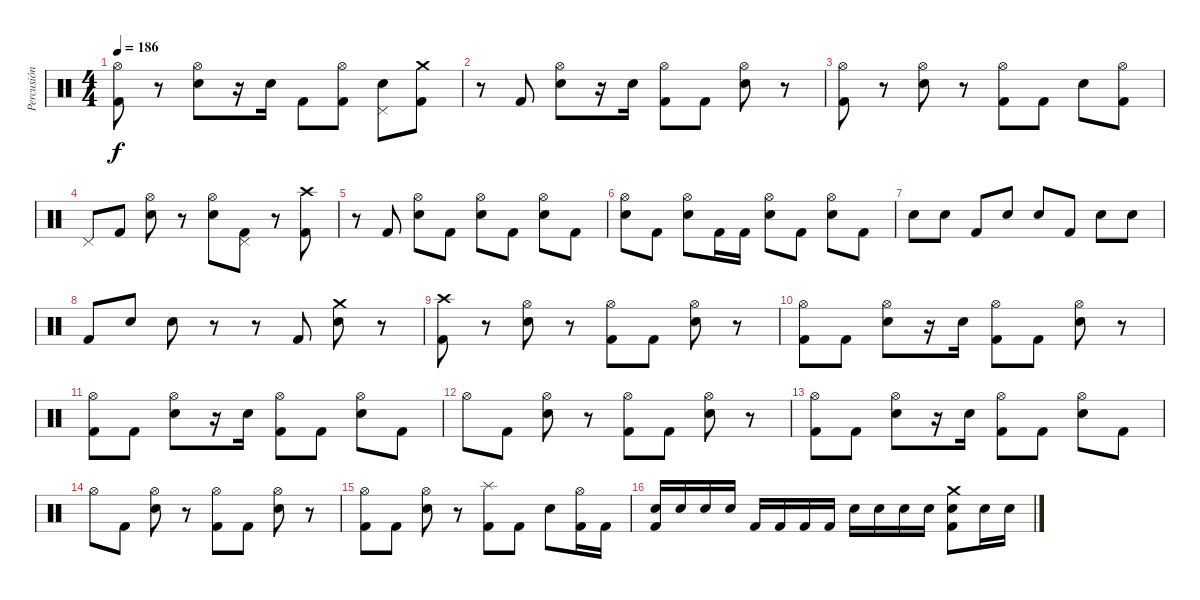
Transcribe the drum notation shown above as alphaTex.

\track ("Percusión" "Percusión") {instrument percussion}
\staff {score}
\articulation defaults
\ts (4 4)
\tempo 186
\clef neutral
\ks c
("Kick (hit) 2" "Hi-Hat (open)").8{dy f} r.8 ("Snare (hit) 2" "Hi-Hat (open)").8 r.16 "Snare (hit) 2".16 "Kick (hit) 2".8 ("Kick (hit) 2" "Hi-Hat (open)").8 ("Snare (hit) 2" "Pedal Hi-Hat (hit)").8 ("Kick (hit) 2" "Crash medium (hit)").8 |
r.8 "Kick (hit) 2".8 ("Snare (hit) 2" "Hi-Hat (open)").8 r.16 "Snare (hit) 2".16 ("Kick (hit) 2" "Hi-Hat (open)").8 "Kick (hit) 2".8 ("Snare (hit) 2" "Hi-Hat (open)").8 r.8 |
("Kick (hit) 2" "Hi-Hat (open)").8 r.8 ("Snare (hit) 2" "Hi-Hat (open)").8 r.8 ("Kick (hit) 2" "Hi-Hat (open)").8 "Kick (hit) 2".8 "Snare (hit) 2".8 ("Kick (hit) 2" "Hi-Hat (open)").8 |
"Pedal Hi-Hat (hit)".8 "Kick (hit) 2".8 ("Snare (hit) 2" "Hi-Hat (open)").8 r.8 ("Snare (hit) 2" "Hi-Hat (open)").8 ("Kick (hit) 2" "Pedal Hi-Hat (hit)").8 r.8 ("Kick (hit) 2" "Crash high (hit)").8 |
r.8 "Kick (hit) 2".8 ("Snare (hit) 2" "Hi-Hat (open)").8 "Kick (hit) 2".8 ("Snare (hit) 2" "Hi-Hat (open)").8 "Kick (hit) 2".8 ("Snare (hit) 2" "Hi-Hat (open)").8 "Kick (hit) 2".8 |
("Snare (hit) 2" "Hi-Hat (open)").8 "Kick (hit) 2".8 ("Snare (hit) 2" "Hi-Hat (open)").8 "Kick (hit) 2".16 "Kick (hit) 2".16 ("Snare (hit) 2" "Hi-Hat (open)").8 "Kick (hit) 2".8 ("Snare (hit) 2" "Hi-Hat (open)").8 "Kick (hit) 2".8 |
"Snare (hit) 2".8 "Snare (hit) 2".8 "Kick (hit) 2".8 "Snare (hit) 2".8 "Snare (hit) 2".8 "Kick (hit) 2".8 "Snare (hit) 2".8 "Snare (hit) 2".8 |
"Kick (hit) 2".8 "Snare (hit) 2".8 "Snare (hit) 2".8 r.8 r.8 "Kick (hit) 2".8 ("Snare (hit) 2" "Crash medium (hit)").8 r.8 |
("Kick (hit) 2" "Crash high (hit)").8 r.8 ("Hi-Hat (open)" "Snare (hit) 2").8 r.8 ("Kick (hit) 2" "Hi-Hat (open)").8 "Kick (hit) 2".8 ("Hi-Hat (open)" "Snare (hit) 2").8 r.8 |
("Kick (hit) 2" "Hi-Hat (open)").8 "Kick (hit) 2".8 ("Hi-Hat (open)" "Snare (hit) 2").8 r.16 "Snare (hit) 2".16 ("Kick (hit) 2" "Hi-Hat (open)").8 "Kick (hit) 2".8 ("Hi-Hat (open)" "Snare (hit) 2").8 r.8 |
("Kick (hit) 2" "Hi-Hat (open)").8 "Kick (hit) 2".8 ("Hi-Hat (open)" "Snare (hit) 2").8 r.16 "Snare (hit) 2".16 ("Kick (hit) 2" "Hi-Hat (open)").8 "Kick (hit) 2".8 ("Hi-Hat (open)" "Snare (hit) 2").8 "Kick (hit) 2".8 |
"Hi-Hat (open)".8 "Kick (hit) 2".8 ("Hi-Hat (open)" "Snare (hit) 2").8 r.8 ("Kick (hit) 2" "Hi-Hat (open)").8 "Kick (hit) 2".8 ("Hi-Hat (open)" "Snare (hit) 2").8 r.8 |
("Kick (hit) 2" "Hi-Hat (open)").8 "Kick (hit) 2".8 ("Hi-Hat (open)" "Snare (hit) 2").8 r.16 "Snare (hit) 2".16 ("Kick (hit) 2" "Hi-Hat (open)").8 "Kick (hit) 2".8 ("Hi-Hat (open)" "Snare (hit) 2").8 "Kick (hit) 2".8 |
"Hi-Hat (open)".8 "Kick (hit) 2".8 ("Hi-Hat (open)" "Snare (hit) 2").8 r.8 ("Kick (hit) 2" "Hi-Hat (open)").8 "Kick (hit) 2".8 ("Hi-Hat (open)" "Snare (hit) 2").8 r.8 |
("Kick (hit) 2" "Hi-Hat (open)").8 "Kick (hit) 2".8 ("Hi-Hat (open)" "Snare (hit) 2").8 r.8 ("Kick (hit) 2" "Splash (hit)").8 "Kick (hit) 2".8 "Snare (hit) 2".8 ("Kick (hit) 2" "Hi-Hat (open)").16 "Kick (hit) 2".16 |
("Kick (hit) 2" "Snare (hit) 2").16 "Snare (hit) 2".16 "Snare (hit) 2".16 "Snare (hit) 2".16 "Kick (hit) 2".16 "Kick (hit) 2".16 "Kick (hit) 2".16 "Kick (hit) 2".16 "Snare (hit) 2".16 "Snare (hit) 2".16 "Snare (hit) 2".16 "Snare (hit) 2".16 ("Kick (hit) 2" "Snare (hit) 2" "Crash medium (hit)").8 "Snare (hit) 2".16 "Snare (hit) 2".16
